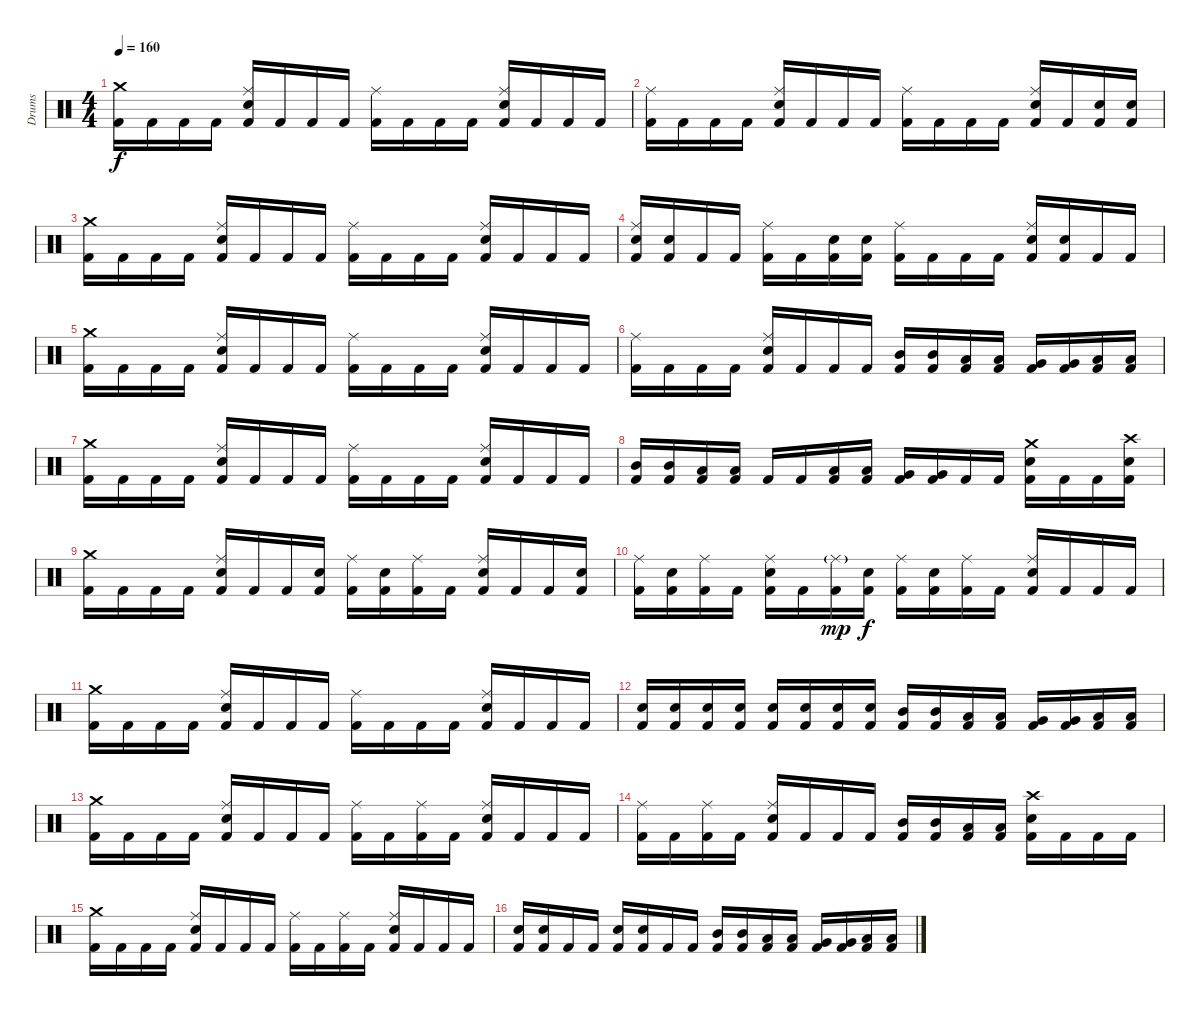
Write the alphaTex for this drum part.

\track ("Drums" "Drums") {instrument percussion}
\staff {score}
\articulation defaults
\ts (4 4)
\section ("" "")
\tempo 160
\clef neutral
\ks c
("Crash medium (hit)" "Kick (hit) 2").16{dy f} "Kick (hit) 2".16 "Kick (hit) 2".16 "Kick (hit) 2".16 ("Ride (middle)" "Electric Snare (hit)" "Kick (hit) 2").16 "Kick (hit) 2".16 "Kick (hit) 2".16 "Kick (hit) 2".16 ("Ride (middle)" "Kick (hit) 2").16 "Kick (hit) 2".16 "Kick (hit) 2".16 "Kick (hit) 2".16 ("Ride (middle)" "Electric Snare (hit)" "Kick (hit) 2").16 "Kick (hit) 2".16 "Kick (hit) 2".16 "Kick (hit) 2".16 |
("Ride (middle)" "Kick (hit) 2").16 "Kick (hit) 2".16 "Kick (hit) 2".16 "Kick (hit) 2".16 ("Ride (middle)" "Electric Snare (hit)" "Kick (hit) 2").16 "Kick (hit) 2".16 "Kick (hit) 2".16 "Kick (hit) 2".16 ("Ride (middle)" "Kick (hit) 2").16 "Kick (hit) 2".16 "Kick (hit) 2".16 "Kick (hit) 2".16 ("Ride (middle)" "Electric Snare (hit)" "Kick (hit) 2").16 "Kick (hit) 2".16 ("Electric Snare (hit)" "Kick (hit) 2").16 ("Electric Snare (hit)" "Kick (hit) 2").16 |
("Crash medium (hit)" "Kick (hit) 2").16 "Kick (hit) 2".16 "Kick (hit) 2".16 "Kick (hit) 2".16 ("Ride (middle)" "Electric Snare (hit)" "Kick (hit) 2").16 "Kick (hit) 2".16 "Kick (hit) 2".16 "Kick (hit) 2".16 ("Ride (middle)" "Kick (hit) 2").16 "Kick (hit) 2".16 "Kick (hit) 2".16 "Kick (hit) 2".16 ("Ride (middle)" "Electric Snare (hit)" "Kick (hit) 2").16 "Kick (hit) 2".16 "Kick (hit) 2".16 "Kick (hit) 2".16 |
("Ride (middle)" "Electric Snare (hit)" "Kick (hit) 2").16 ("Electric Snare (hit)" "Kick (hit) 2").16 "Kick (hit) 2".16 "Kick (hit) 2".16 ("Ride (middle)" "Kick (hit) 2").16 "Kick (hit) 2".16 ("Electric Snare (hit)" "Kick (hit) 2").16 ("Electric Snare (hit)" "Kick (hit) 2").16 ("Ride (middle)" "Kick (hit) 2").16 "Kick (hit) 2".16 "Kick (hit) 2".16 "Kick (hit) 2".16 ("Ride (middle)" "Electric Snare (hit)" "Kick (hit) 2").16 ("Electric Snare (hit)" "Kick (hit) 2").16 "Kick (hit) 2".16 "Kick (hit) 2".16 |
("Crash medium (hit)" "Kick (hit) 2").16 "Kick (hit) 2".16 "Kick (hit) 2".16 "Kick (hit) 2".16 ("Ride (middle)" "Electric Snare (hit)" "Kick (hit) 2").16 "Kick (hit) 2".16 "Kick (hit) 2".16 "Kick (hit) 2".16 ("Ride (middle)" "Kick (hit) 2").16 "Kick (hit) 2".16 "Kick (hit) 2".16 "Kick (hit) 2".16 ("Ride (middle)" "Electric Snare (hit)" "Kick (hit) 2").16 "Kick (hit) 2".16 "Kick (hit) 2".16 "Kick (hit) 2".16 |
("Ride (middle)" "Kick (hit) 2").16 "Kick (hit) 2".16 "Kick (hit) 2".16 "Kick (hit) 2".16 ("Ride (middle)" "Electric Snare (hit)" "Kick (hit) 2").16 "Kick (hit) 2".16 "Kick (hit) 2".16 "Kick (hit) 2".16 ("Mid Tom (hit)" "Kick (hit) 2").16 ("Mid Tom (hit)" "Kick (hit) 2").16 ("Low Tom (hit)" "Kick (hit) 2").16 ("Low Tom (hit)" "Kick (hit) 2").16 ("Very Low Tom (hit)" "Kick (hit) 2").16 ("Very Low Tom (hit)" "Kick (hit) 2").16 ("Low Floor Tom (hit)" "Kick (hit) 2").16 ("Low Floor Tom (hit)" "Kick (hit) 2").16 |
("Crash medium (hit)" "Kick (hit) 2").16 "Kick (hit) 2".16 "Kick (hit) 2".16 "Kick (hit) 2".16 ("Ride (middle)" "Electric Snare (hit)" "Kick (hit) 2").16 "Kick (hit) 2".16 "Kick (hit) 2".16 "Kick (hit) 2".16 ("Ride (middle)" "Kick (hit) 2").16 "Kick (hit) 2".16 "Kick (hit) 2".16 "Kick (hit) 2".16 ("Ride (middle)" "Electric Snare (hit)" "Kick (hit) 2").16 "Kick (hit) 2".16 "Kick (hit) 2".16 "Kick (hit) 2".16 |
("Mid Tom (hit)" "Kick (hit) 2").16 ("Mid Tom (hit)" "Kick (hit) 2").16 ("Low Tom (hit)" "Kick (hit) 2").16 ("Low Tom (hit)" "Kick (hit) 2").16 "Kick (hit) 2".16 "Kick (hit) 2".16 ("Low Tom (hit)" "Kick (hit) 2").16 ("Low Tom (hit)" "Kick (hit) 2").16 ("Very Low Tom (hit)" "Kick (hit) 2").16 ("Very Low Tom (hit)" "Kick (hit) 2").16 "Kick (hit) 2".16 "Kick (hit) 2".16 ("Crash medium (hit)" "Electric Snare (hit)" "Kick (hit) 2").16 "Kick (hit) 2".16 "Kick (hit) 2".16 ("Crash high (hit)" "Electric Snare (hit)" "Kick (hit) 2").16 |
("Crash medium (hit)" "Kick (hit) 2").16 "Kick (hit) 2".16 "Kick (hit) 2".16 "Kick (hit) 2".16 ("Ride (middle)" "Electric Snare (hit)" "Kick (hit) 2").16 "Kick (hit) 2".16 "Kick (hit) 2".16 ("Electric Snare (hit)" "Kick (hit) 2").16 ("Ride (middle)" "Kick (hit) 2").16 ("Electric Snare (hit)" "Kick (hit) 2").16 ("Ride (middle)" "Kick (hit) 2").16 "Kick (hit) 2".16 ("Ride (middle)" "Electric Snare (hit)" "Kick (hit) 2").16 "Kick (hit) 2".16 "Kick (hit) 2".16 ("Electric Snare (hit)" "Kick (hit) 2").16 |
("Ride (middle)" "Kick (hit) 2").16 ("Electric Snare (hit)" "Kick (hit) 2").16 ("Ride (middle)" "Kick (hit) 2").16 "Kick (hit) 2".16 ("Ride (middle)" "Electric Snare (hit)" "Kick (hit) 2").16 "Kick (hit) 2".16 ("Ride (middle)"{g} "Kick (hit) 2").16{dy mp} ("Electric Snare (hit)" "Kick (hit) 2").16{dy f} ("Ride (middle)" "Kick (hit) 2").16 ("Electric Snare (hit)" "Kick (hit) 2").16 ("Ride (middle)" "Kick (hit) 2").16 "Kick (hit) 2".16 ("Ride (middle)" "Electric Snare (hit)" "Kick (hit) 2").16 "Kick (hit) 2".16 "Kick (hit) 2".16 "Kick (hit) 2".16 |
("Crash medium (hit)" "Kick (hit) 2").16 "Kick (hit) 2".16 "Kick (hit) 2".16 "Kick (hit) 2".16 ("Ride (middle)" "Electric Snare (hit)" "Kick (hit) 2").16 "Kick (hit) 2".16 "Kick (hit) 2".16 "Kick (hit) 2".16 ("Ride (middle)" "Kick (hit) 2").16 "Kick (hit) 2".16 "Kick (hit) 2".16 "Kick (hit) 2".16 ("Ride (middle)" "Electric Snare (hit)" "Kick (hit) 2").16 "Kick (hit) 2".16 "Kick (hit) 2".16 "Kick (hit) 2".16 |
("Electric Snare (hit)" "Kick (hit) 2").16 ("Electric Snare (hit)" "Kick (hit) 2").16 ("Electric Snare (hit)" "Kick (hit) 2").16 ("Electric Snare (hit)" "Kick (hit) 2").16 ("Electric Snare (hit)" "Kick (hit) 2").16 ("Electric Snare (hit)" "Kick (hit) 2").16 ("Electric Snare (hit)" "Kick (hit) 2").16 ("Electric Snare (hit)" "Kick (hit) 2").16 ("Mid Tom (hit)" "Kick (hit) 2").16 ("Mid Tom (hit)" "Kick (hit) 2").16 ("Low Tom (hit)" "Kick (hit) 2").16 ("Low Tom (hit)" "Kick (hit) 2").16 ("Very Low Tom (hit)" "Kick (hit) 2").16 ("Very Low Tom (hit)" "Kick (hit) 2").16 ("Low Floor Tom (hit)" "Kick (hit) 2").16 ("Low Floor Tom (hit)" "Kick (hit) 2").16 |
("Crash medium (hit)" "Kick (hit) 2").16 "Kick (hit) 2".16 "Kick (hit) 2".16 "Kick (hit) 2".16 ("Ride (middle)" "Electric Snare (hit)" "Kick (hit) 2").16 "Kick (hit) 2".16 "Kick (hit) 2".16 "Kick (hit) 2".16 ("Ride (middle)" "Kick (hit) 2").16 "Kick (hit) 2".16 ("Ride (middle)" "Kick (hit) 2").16 "Kick (hit) 2".16 ("Ride (middle)" "Electric Snare (hit)" "Kick (hit) 2").16 "Kick (hit) 2".16 "Kick (hit) 2".16 "Kick (hit) 2".16 |
("Ride (middle)" "Kick (hit) 2").16 "Kick (hit) 2".16 ("Ride (middle)" "Kick (hit) 2").16 "Kick (hit) 2".16 ("Ride (middle)" "Electric Snare (hit)" "Kick (hit) 2").16 "Kick (hit) 2".16 "Kick (hit) 2".16 "Kick (hit) 2".16 ("Mid Tom (hit)" "Kick (hit) 2").16 ("Mid Tom (hit)" "Kick (hit) 2").16 ("Low Tom (hit)" "Kick (hit) 2").16 ("Low Tom (hit)" "Kick (hit) 2").16 ("Crash high (hit)" "Electric Snare (hit)" "Kick (hit) 2").16 "Kick (hit) 2".16 "Kick (hit) 2".16 "Kick (hit) 2".16 |
("Crash medium (hit)" "Kick (hit) 2").16 "Kick (hit) 2".16 "Kick (hit) 2".16 "Kick (hit) 2".16 ("Ride (middle)" "Electric Snare (hit)" "Kick (hit) 2").16 "Kick (hit) 2".16 "Kick (hit) 2".16 "Kick (hit) 2".16 ("Ride (middle)" "Kick (hit) 2").16 "Kick (hit) 2".16 ("Ride (middle)" "Kick (hit) 2").16 "Kick (hit) 2".16 ("Ride (middle)" "Electric Snare (hit)" "Kick (hit) 2").16 "Kick (hit) 2".16 "Kick (hit) 2".16 "Kick (hit) 2".16 |
("Electric Snare (hit)" "Kick (hit) 2").16 ("Electric Snare (hit)" "Kick (hit) 2").16 "Kick (hit) 2".16 "Kick (hit) 2".16 ("Electric Snare (hit)" "Kick (hit) 2").16 ("Electric Snare (hit)" "Kick (hit) 2").16 "Kick (hit) 2".16 "Kick (hit) 2".16 ("Mid Tom (hit)" "Kick (hit) 2").16 ("Mid Tom (hit)" "Kick (hit) 2").16 ("Low Tom (hit)" "Kick (hit) 2").16 ("Low Tom (hit)" "Kick (hit) 2").16 ("Very Low Tom (hit)" "Kick (hit) 2").16 ("Very Low Tom (hit)" "Kick (hit) 2").16 ("Low Floor Tom (hit)" "Kick (hit) 2").16 ("Low Floor Tom (hit)" "Kick (hit) 2").16
